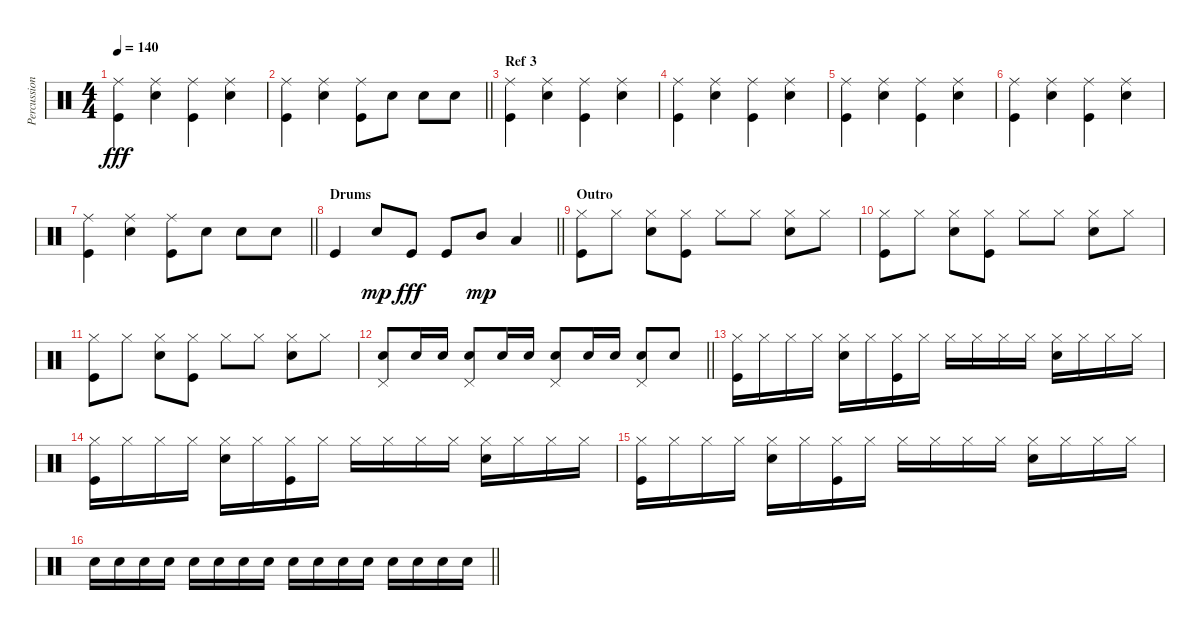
\track ("Percussion" "Percussion") {instrument percussion}
\staff {score}
\articulation defaults
\ts (4 4)
\tempo 140
\clef neutral
\ks c
("Ride (middle)" "Kick (hit)").4{dy fff} ("Ride (middle)" "Snare (hit) 2").4 ("Ride (middle)" "Kick (hit)").4 ("Ride (middle)" "Snare (hit) 2").4 |
\barLineRight lightlight
("Ride (middle)" "Kick (hit)").4 ("Ride (middle)" "Snare (hit) 2").4 ("Ride (middle)" "Kick (hit)").8 "Snare (hit) 2".8 "Snare (hit) 2".8 "Snare (hit) 2".8 |
\section ("" "Ref 3")
("Ride (middle)" "Kick (hit)").4 ("Ride (middle)" "Snare (hit) 2").4 ("Ride (middle)" "Kick (hit)").4 ("Ride (middle)" "Snare (hit) 2").4 |
("Ride (middle)" "Kick (hit)").4 ("Ride (middle)" "Snare (hit) 2").4 ("Ride (middle)" "Kick (hit)").4 ("Ride (middle)" "Snare (hit) 2").4 |
("Ride (middle)" "Kick (hit)").4 ("Ride (middle)" "Snare (hit) 2").4 ("Ride (middle)" "Kick (hit)").4 ("Ride (middle)" "Snare (hit) 2").4 |
("Ride (middle)" "Kick (hit)").4 ("Ride (middle)" "Snare (hit) 2").4 ("Ride (middle)" "Kick (hit)").4 ("Ride (middle)" "Snare (hit) 2").4 |
\barLineRight lightlight
("Ride (middle)" "Kick (hit)").4 ("Ride (middle)" "Snare (hit) 2").4 ("Ride (middle)" "Kick (hit)").8 "Snare (hit) 2".8 "Snare (hit) 2".8 "Snare (hit) 2".8 |
\section ("" "Drums")
\barLineRight lightlight "Kick (hit)".4 "Snare (hit) 2".8{dy mp} "Kick (hit)".8{dy fff} "Kick (hit)".8 "Mid Tom (hit)".8{dy mp} "Low Tom (hit)".4
|
\section ("" "Outro")
("Hi-Hat (closed)" "Kick (hit)").8 "Hi-Hat (closed)".8 ("Hi-Hat (closed)" "Snare (hit) 2").8 ("Hi-Hat (closed)" "Kick (hit)").8 "Hi-Hat (closed)".8 "Hi-Hat (closed)".8 ("Hi-Hat (closed)" "Snare (hit) 2").8 "Hi-Hat (closed)".8 |
("Hi-Hat (closed)" "Kick (hit)").8 "Hi-Hat (closed)".8 ("Hi-Hat (closed)" "Snare (hit) 2").8 ("Hi-Hat (closed)" "Kick (hit)").8 "Hi-Hat (closed)".8 "Hi-Hat (closed)".8 ("Hi-Hat (closed)" "Snare (hit) 2").8 "Hi-Hat (closed)".8 |
("Hi-Hat (closed)" "Kick (hit)").8 "Hi-Hat (closed)".8 ("Hi-Hat (closed)" "Snare (hit) 2").8 ("Hi-Hat (closed)" "Kick (hit)").8 "Hi-Hat (closed)".8 "Hi-Hat (closed)".8 ("Hi-Hat (closed)" "Snare (hit) 2").8 "Hi-Hat (closed)".8 |
\barLineRight lightlight
("Pedal Hi-Hat (hit)" "Snare (hit) 2").8 "Snare (hit) 2".16 "Snare (hit) 2".16 ("Pedal Hi-Hat (hit)" "Snare (hit) 2").8 "Snare (hit) 2".16 "Snare (hit) 2".16 ("Pedal Hi-Hat (hit)" "Snare (hit) 2").8 "Snare (hit) 2".16 "Snare (hit) 2".16 ("Pedal Hi-Hat (hit)" "Snare (hit) 2").8 "Snare (hit) 2".8 |
("Hi-Hat (closed)" "Kick (hit)").16 "Hi-Hat (closed)".16 "Hi-Hat (closed)".16 "Hi-Hat (closed)".16 ("Hi-Hat (closed)" "Snare (hit) 2").16 "Hi-Hat (closed)".16 ("Hi-Hat (closed)" "Kick (hit)").16 "Hi-Hat (closed)".16 "Hi-Hat (closed)".16 "Hi-Hat (closed)".16 "Hi-Hat (closed)".16 "Hi-Hat (closed)".16 ("Hi-Hat (closed)" "Snare (hit) 2").16 "Hi-Hat (closed)".16 "Hi-Hat (closed)".16 "Hi-Hat (closed)".16 |
("Hi-Hat (closed)" "Kick (hit)").16 "Hi-Hat (closed)".16 "Hi-Hat (closed)".16 "Hi-Hat (closed)".16 ("Hi-Hat (closed)" "Snare (hit) 2").16 "Hi-Hat (closed)".16 ("Hi-Hat (closed)" "Kick (hit)").16 "Hi-Hat (closed)".16 "Hi-Hat (closed)".16 "Hi-Hat (closed)".16 "Hi-Hat (closed)".16 "Hi-Hat (closed)".16 ("Hi-Hat (closed)" "Snare (hit) 2").16 "Hi-Hat (closed)".16 "Hi-Hat (closed)".16 "Hi-Hat (closed)".16 |
("Hi-Hat (closed)" "Kick (hit)").16 "Hi-Hat (closed)".16 "Hi-Hat (closed)".16 "Hi-Hat (closed)".16 ("Hi-Hat (closed)" "Snare (hit) 2").16 "Hi-Hat (closed)".16 ("Hi-Hat (closed)" "Kick (hit)").16 "Hi-Hat (closed)".16 "Hi-Hat (closed)".16 "Hi-Hat (closed)".16 "Hi-Hat (closed)".16 "Hi-Hat (closed)".16 ("Hi-Hat (closed)" "Snare (hit) 2").16 "Hi-Hat (closed)".16 "Hi-Hat (closed)".16 "Hi-Hat (closed)".16 |
\barLineRight lightlight "Snare (hit) 2".16 "Snare (hit) 2".16 "Snare (hit) 2".16 "Snare (hit) 2".16 "Snare (hit) 2".16 "Snare (hit) 2".16 "Snare (hit) 2".16 "Snare (hit) 2".16 "Snare (hit) 2".16 "Snare (hit) 2".16 "Snare (hit) 2".16 "Snare (hit) 2".16 "Snare (hit) 2".16 "Snare (hit) 2".16 "Snare (hit) 2".16 "Snare (hit) 2".16
